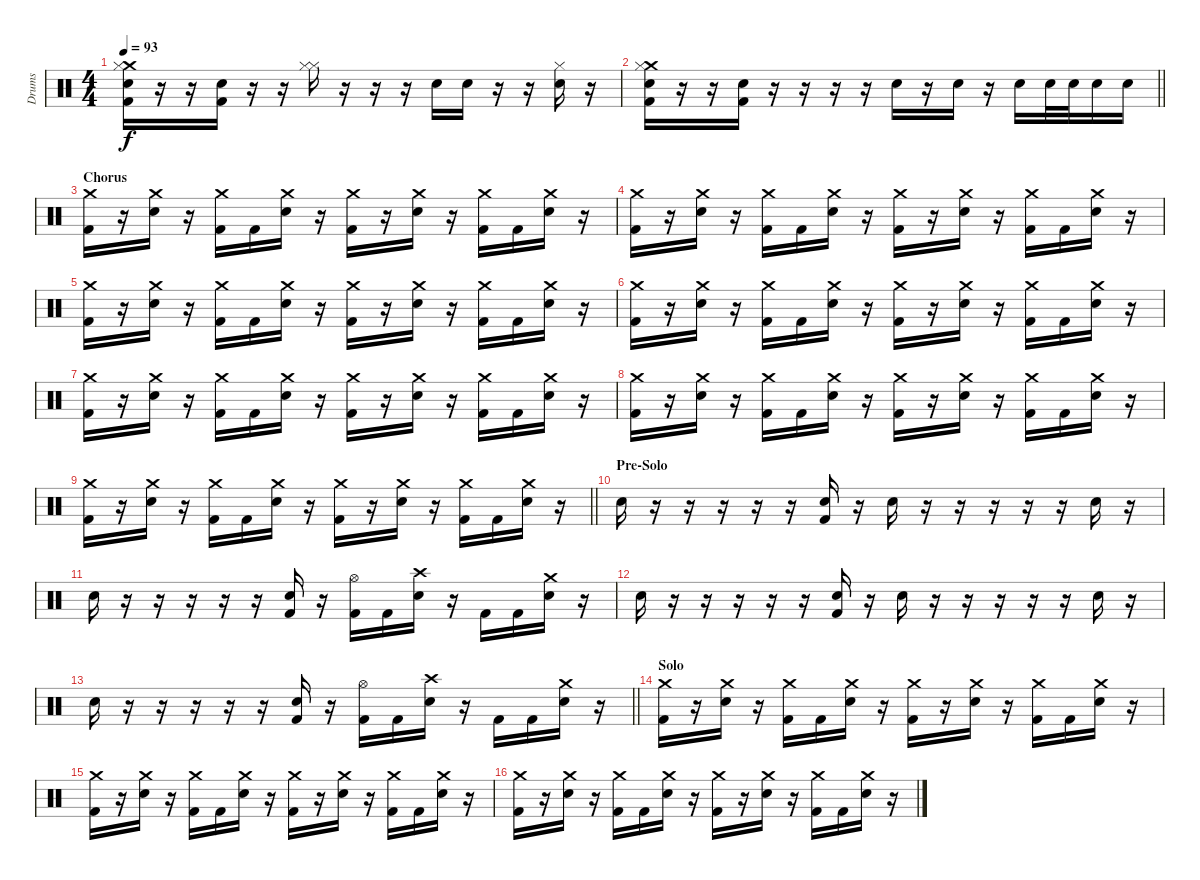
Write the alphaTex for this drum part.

\track ("Drums" "Drums") {instrument percussion}
\staff {score}
\articulation defaults
\ts (4 4)
\tempo 93
\clef neutral
\ks c
("Crash medium (hit)" "Hi-Hat (closed)" "Electric Snare (hit)" "Kick (hit) 2").16{dy f} r.16 r.16 ("Electric Snare (hit)" "Kick (hit) 2").16 r.16 r.16 ("Hi-Hat (closed)" "Hi-Hat (closed)").16 r.16 r.16 r.16 "Hand Clap (hit)".16 "Hand Clap (hit)".16 r.16 r.16 ("Hi-Hat (closed)" "Hand Clap (hit)").16 r.16 |
\barLineRight lightlight
("Crash medium (hit)" "Hi-Hat (closed)" "Electric Snare (hit)" "Kick (hit) 2").16 r.16 r.16 ("Electric Snare (hit)" "Kick (hit) 2").16 r.16 r.16 r.16 r.16 "Electric Snare (hit)".16 r.16 "Electric Snare (hit)".16 r.16 "Electric Snare (hit)".16 "Electric Snare (hit)".32 "Electric Snare (hit)".32 "Electric Snare (hit)".16 "Electric Snare (hit)".16 |
\section ("" "Chorus")
("Crash medium (hit)" "Kick (hit) 2").16 r.16 ("Crash medium (hit)" "Electric Snare (hit)").16 r.16 ("Crash medium (hit)" "Kick (hit) 2").16 "Kick (hit) 2".16 ("Crash medium (hit)" "Electric Snare (hit)").16 r.16 ("Crash medium (hit)" "Kick (hit) 2").16 r.16 ("Crash medium (hit)" "Electric Snare (hit)").16 r.16 ("Crash medium (hit)" "Kick (hit) 2").16 "Kick (hit) 2".16 ("Crash medium (hit)" "Electric Snare (hit)").16 r.16 |
("Crash medium (hit)" "Kick (hit) 2").16 r.16 ("Crash medium (hit)" "Electric Snare (hit)").16 r.16 ("Crash medium (hit)" "Kick (hit) 2").16 "Kick (hit) 2".16 ("Crash medium (hit)" "Electric Snare (hit)").16 r.16 ("Crash medium (hit)" "Kick (hit) 2").16 r.16 ("Crash medium (hit)" "Electric Snare (hit)").16 r.16 ("Crash medium (hit)" "Kick (hit) 2").16 "Kick (hit) 2".16 ("Crash medium (hit)" "Electric Snare (hit)").16 r.16 |
("Crash medium (hit)" "Kick (hit) 2").16 r.16 ("Crash medium (hit)" "Electric Snare (hit)").16 r.16 ("Crash medium (hit)" "Kick (hit) 2").16 "Kick (hit) 2".16 ("Crash medium (hit)" "Electric Snare (hit)").16 r.16 ("Crash medium (hit)" "Kick (hit) 2").16 r.16 ("Crash medium (hit)" "Electric Snare (hit)").16 r.16 ("Crash medium (hit)" "Kick (hit) 2").16 "Kick (hit) 2".16 ("Crash medium (hit)" "Electric Snare (hit)").16 r.16 |
("Crash medium (hit)" "Kick (hit) 2").16 r.16 ("Crash medium (hit)" "Electric Snare (hit)").16 r.16 ("Crash medium (hit)" "Kick (hit) 2").16 "Kick (hit) 2".16 ("Crash medium (hit)" "Electric Snare (hit)").16 r.16 ("Crash medium (hit)" "Kick (hit) 2").16 r.16 ("Crash medium (hit)" "Electric Snare (hit)").16 r.16 ("Crash medium (hit)" "Kick (hit) 2").16 "Kick (hit) 2".16 ("Crash medium (hit)" "Electric Snare (hit)").16 r.16 |
("Crash medium (hit)" "Kick (hit) 2").16 r.16 ("Crash medium (hit)" "Electric Snare (hit)").16 r.16 ("Crash medium (hit)" "Kick (hit) 2").16 "Kick (hit) 2".16 ("Crash medium (hit)" "Electric Snare (hit)").16 r.16 ("Crash medium (hit)" "Kick (hit) 2").16 r.16 ("Crash medium (hit)" "Electric Snare (hit)").16 r.16 ("Crash medium (hit)" "Kick (hit) 2").16 "Kick (hit) 2".16 ("Crash medium (hit)" "Electric Snare (hit)").16 r.16 |
("Crash medium (hit)" "Kick (hit) 2").16 r.16 ("Crash medium (hit)" "Electric Snare (hit)").16 r.16 ("Crash medium (hit)" "Kick (hit) 2").16 "Kick (hit) 2".16 ("Crash medium (hit)" "Electric Snare (hit)").16 r.16 ("Crash medium (hit)" "Kick (hit) 2").16 r.16 ("Crash medium (hit)" "Electric Snare (hit)").16 r.16 ("Crash medium (hit)" "Kick (hit) 2").16 "Kick (hit) 2".16 ("Crash medium (hit)" "Electric Snare (hit)").16 r.16 |
\barLineRight lightlight
("Crash medium (hit)" "Kick (hit) 2").16 r.16 ("Crash medium (hit)" "Electric Snare (hit)").16 r.16 ("Crash medium (hit)" "Kick (hit) 2").16 "Kick (hit) 2".16 ("Crash medium (hit)" "Electric Snare (hit)").16 r.16 ("Crash medium (hit)" "Kick (hit) 2").16 r.16 ("Crash medium (hit)" "Electric Snare (hit)").16 r.16 ("Crash medium (hit)" "Kick (hit) 2").16 "Kick (hit) 2".16 ("Crash medium (hit)" "Electric Snare (hit)").16 r.16 |
\section ("" "Pre-Solo")
"Electric Snare (hit)".16 r.16 r.16 r.16 r.16 r.16 ("Electric Snare (hit)" "Kick (hit) 2").16 r.16 "Electric Snare (hit)".16 r.16 r.16 r.16 r.16 r.16 "Electric Snare (hit)".16 r.16 |
"Electric Snare (hit)".16 r.16 r.16 r.16 r.16 r.16 ("Electric Snare (hit)" "Kick (hit) 2").16 r.16 ("Hi-Hat (open)" "Kick (hit) 2").16 "Kick (hit) 2".16 ("Crash high (hit)" "Electric Snare (hit)").16 r.16 "Kick (hit) 2".16 "Kick (hit) 2".16 ("Crash medium (hit)" "Electric Snare (hit)").16 r.16 |
"Electric Snare (hit)".16 r.16 r.16 r.16 r.16 r.16 ("Electric Snare (hit)" "Kick (hit) 2").16 r.16 "Electric Snare (hit)".16 r.16 r.16 r.16 r.16 r.16 "Electric Snare (hit)".16 r.16 |
\barLineRight lightlight "Electric Snare (hit)".16
r.16 r.16 r.16 r.16 r.16 ("Electric Snare (hit)" "Kick (hit) 2").16 r.16 ("Hi-Hat (open)" "Kick (hit) 2").16 "Kick (hit) 2".16 ("Crash high (hit)" "Electric Snare (hit)").16 r.16 "Kick (hit) 2".16 "Kick (hit) 2".16 ("Crash medium (hit)" "Electric Snare (hit)").16 r.16 |
\section ("" "Solo")
("Crash medium (hit)" "Kick (hit) 2").16 r.16 ("Crash medium (hit)" "Electric Snare (hit)").16 r.16 ("Crash medium (hit)" "Kick (hit) 2").16 "Kick (hit) 2".16 ("Crash medium (hit)" "Electric Snare (hit)").16 r.16 ("Crash medium (hit)" "Kick (hit) 2").16 r.16 ("Crash medium (hit)" "Electric Snare (hit)").16 r.16 ("Crash medium (hit)" "Kick (hit) 2").16 "Kick (hit) 2".16 ("Crash medium (hit)" "Electric Snare (hit)").16 r.16 |
("Crash medium (hit)" "Kick (hit) 2").16 r.16 ("Crash medium (hit)" "Electric Snare (hit)").16 r.16 ("Crash medium (hit)" "Kick (hit) 2").16 "Kick (hit) 2".16 ("Crash medium (hit)" "Electric Snare (hit)").16 r.16 ("Crash medium (hit)" "Kick (hit) 2").16 r.16 ("Crash medium (hit)" "Electric Snare (hit)").16 r.16 ("Crash medium (hit)" "Kick (hit) 2").16 "Kick (hit) 2".16 ("Crash medium (hit)" "Electric Snare (hit)").16 r.16 |
("Crash medium (hit)" "Kick (hit) 2").16 r.16 ("Crash medium (hit)" "Electric Snare (hit)").16 r.16 ("Crash medium (hit)" "Kick (hit) 2").16 "Kick (hit) 2".16 ("Crash medium (hit)" "Electric Snare (hit)").16 r.16 ("Crash medium (hit)" "Kick (hit) 2").16 r.16 ("Crash medium (hit)" "Electric Snare (hit)").16 r.16 ("Crash medium (hit)" "Kick (hit) 2").16 "Kick (hit) 2".16 ("Crash medium (hit)" "Electric Snare (hit)").16 r.16
